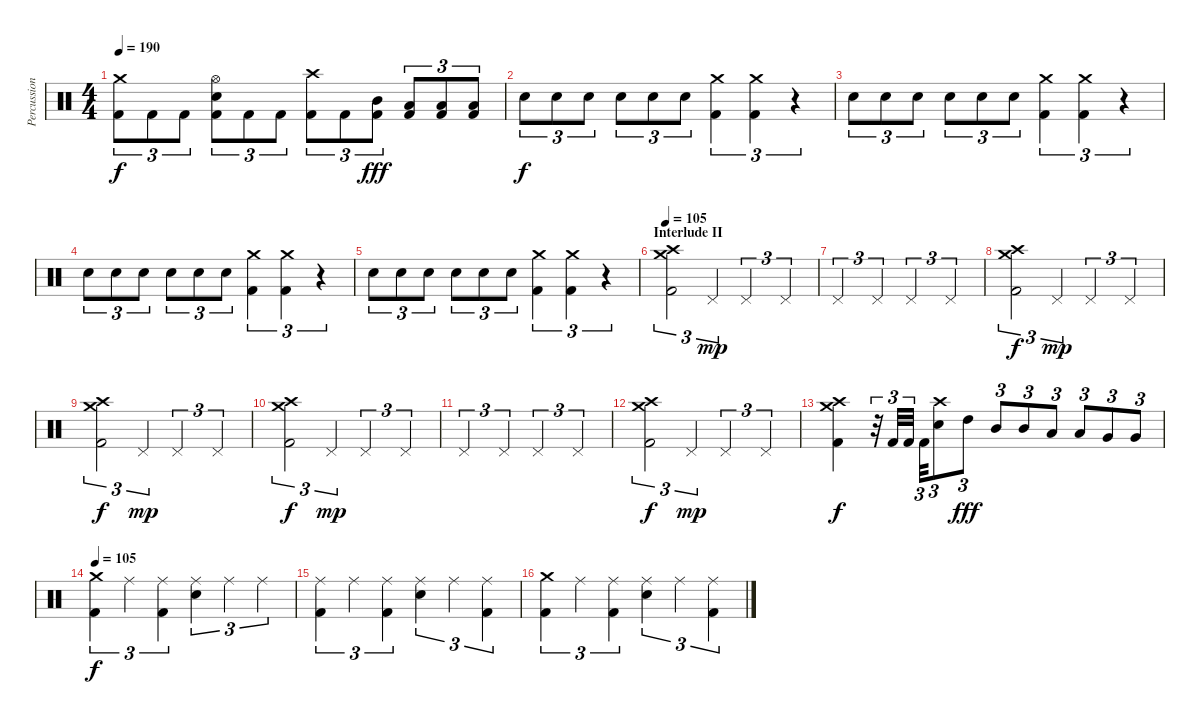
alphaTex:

\track ("Percussion" "Percussion") {instrument percussion}
\staff {score}
\articulation defaults
\ts (4 4)
\tempo 190
\clef neutral
\ks c
("Kick (hit) 2" "Crash medium (hit)").8{tu (3 2) dy f} "Kick (hit) 2".8{tu (3 2)} "Kick (hit) 2".8{tu (3 2)} ("Kick (hit) 2" "Electric Snare (hit)" "Hi-Hat (open)").8{tu (3 2)} "Kick (hit) 2".8{tu (3 2)} "Kick (hit) 2".8{tu (3 2)} ("Kick (hit) 2" "Crash high (hit)").8{tu (3 2)} "Kick (hit) 2".8{tu (3 2)} ("Kick (hit) 2" "Mid Tom (hit)").8{tu (3 2) dy fff} ("Kick (hit) 2" "Low Tom (hit)").8{tu (3 2)} ("Kick (hit) 2" "Low Tom (hit)").8{tu (3 2)} ("Kick (hit) 2" "Low Tom (hit)").8{tu (3 2)} |
"Electric Snare (hit)".8{tu (3 2) dy f} "Electric Snare (hit)".8{tu (3 2)} "Electric Snare (hit)".8{tu (3 2)} "Electric Snare (hit)".8{tu (3 2)} "Electric Snare (hit)".8{tu (3 2)} "Electric Snare (hit)".8{tu (3 2)} ("Kick (hit) 2" "Crash medium (hit)").4{tu (3 2)} ("Kick (hit) 2" "Crash medium (hit)").4{tu (3 2)} r.4{tu (3 2)} |
"Electric Snare (hit)".8{tu (3 2)} "Electric Snare (hit)".8{tu (3 2)} "Electric Snare (hit)".8{tu (3 2)} "Electric Snare (hit)".8{tu (3 2)} "Electric Snare (hit)".8{tu (3 2)} "Electric Snare (hit)".8{tu (3 2)} ("Kick (hit) 2" "Crash medium (hit)").4{tu (3 2)} ("Kick (hit) 2" "Crash medium (hit)").4{tu (3 2)} r.4{tu (3 2)} |
"Electric Snare (hit)".8{tu (3 2)} "Electric Snare (hit)".8{tu (3 2)} "Electric Snare (hit)".8{tu (3 2)} "Electric Snare (hit)".8{tu (3 2)} "Electric Snare (hit)".8{tu (3 2)} "Electric Snare (hit)".8{tu (3 2)} ("Kick (hit) 2" "Crash medium (hit)").4{tu (3 2)} ("Kick (hit) 2" "Crash medium (hit)").4{tu (3 2)} r.4{tu (3 2)} |
"Electric Snare (hit)".8{tu (3 2)} "Electric Snare (hit)".8{tu (3 2)} "Electric Snare (hit)".8{tu (3 2)} "Electric Snare (hit)".8{tu (3 2)} "Electric Snare (hit)".8{tu (3 2)} "Electric Snare (hit)".8{tu (3 2)} ("Kick (hit) 2" "Crash medium (hit)").4{tu (3 2)} ("Kick (hit) 2" "Crash medium (hit)").4{tu (3 2)} r.4{tu (3 2)} |
\section ("" "Interlude II")
\tempo 105
("Kick (hit) 2" "Crash high (hit)" "Crash medium (hit)").2{tu (3 2)} "Pedal Hi-Hat (hit)".4{tu (3 2) dy mp} "Pedal Hi-Hat (hit)".2{tu (3 2)} "Pedal Hi-Hat (hit)".4{tu (3 2)} |
"Pedal Hi-Hat (hit)".2{tu (3 2)} "Pedal Hi-Hat (hit)".4{tu (3 2)} "Pedal Hi-Hat (hit)".2{tu (3 2)} "Pedal Hi-Hat (hit)".4{tu (3 2)} |
("Kick (hit) 2" "Crash high (hit)" "Crash medium (hit)").2{tu (3 2) dy f} "Pedal Hi-Hat (hit)".4{tu (3 2) dy mp} "Pedal Hi-Hat (hit)".2{tu (3 2)} "Pedal Hi-Hat (hit)".4{tu (3 2)} |
("Kick (hit) 2" "Crash high (hit)" "Crash medium (hit)").2{tu (3 2) dy f} "Pedal Hi-Hat (hit)".4{tu (3 2) dy mp} "Pedal Hi-Hat (hit)".2{tu (3 2)} "Pedal Hi-Hat (hit)".4{tu (3 2)} |
("Kick (hit) 2" "Crash high (hit)" "Crash medium (hit)").2{tu (3 2) dy f} "Pedal Hi-Hat (hit)".4{tu (3 2) dy mp} "Pedal Hi-Hat (hit)".2{tu (3 2)} "Pedal Hi-Hat (hit)".4{tu (3 2)} |
"Pedal Hi-Hat (hit)".2{tu (3 2)} "Pedal Hi-Hat (hit)".4{tu (3 2)} "Pedal Hi-Hat (hit)".2{tu (3 2)} "Pedal Hi-Hat (hit)".4{tu (3 2)} |
("Kick (hit) 2" "Crash high (hit)" "Crash medium (hit)").2{tu (3 2) dy f} "Pedal Hi-Hat (hit)".4{tu (3 2) dy mp} "Pedal Hi-Hat (hit)".2{tu (3 2)} "Pedal Hi-Hat (hit)".4{tu (3 2)} |
("Kick (hit) 2" "Crash high (hit)" "Crash medium (hit)").4{dy f} r.32{tu (3 2)} "Kick (hit) 2".32{tu (3 2)} "Kick (hit) 2".32{tu (3 2)} "Kick (hit) 2".32{tu (3 2)} ("Electric Snare (hit)" "Crash high (hit)").8{tu (3 2)} "High Tom (hit)".8{tu (3 2) dy fff} "Mid Tom (hit)".8{tu (3 2)} "Mid Tom (hit)".8{tu (3 2)} "Low Tom (hit)".8{tu (3 2)} "Low Tom (hit)".8{tu (3 2)} "Very Low Tom (hit)".8{tu (3 2)} "Very Low Tom (hit)".8{tu (3 2)} |
\tempo 105
("Kick (hit) 2" "Crash medium (hit)").4{tu (3 2) dy f} "Ride (middle)".4{tu (3 2)} ("Kick (hit) 2" "Ride (middle)").4{tu (3 2)} ("Electric Snare (hit)" "Ride (middle)").4{tu (3 2)} "Ride (middle)".4{tu (3 2)} "Ride (middle)".4{tu (3 2)} |
("Kick (hit) 2" "Ride (middle)").4{tu (3 2)} "Ride (middle)".4{tu (3 2)} ("Kick (hit) 2" "Ride (middle)").4{tu (3 2)} ("Electric Snare (hit)" "Ride (middle)").4{tu (3 2)} "Ride (middle)".4{tu (3 2)} ("Kick (hit) 2" "Ride (middle)").4{tu (3 2)} |
("Kick (hit) 2" "Crash medium (hit)").4{tu (3 2)} "Ride (middle)".4{tu (3 2)} ("Kick (hit) 2" "Ride (middle)").4{tu (3 2)} ("Electric Snare (hit)" "Ride (middle)").4{tu (3 2)} "Ride (middle)".4{tu (3 2)} ("Kick (hit) 2" "Ride (middle)").4{tu (3 2)}
